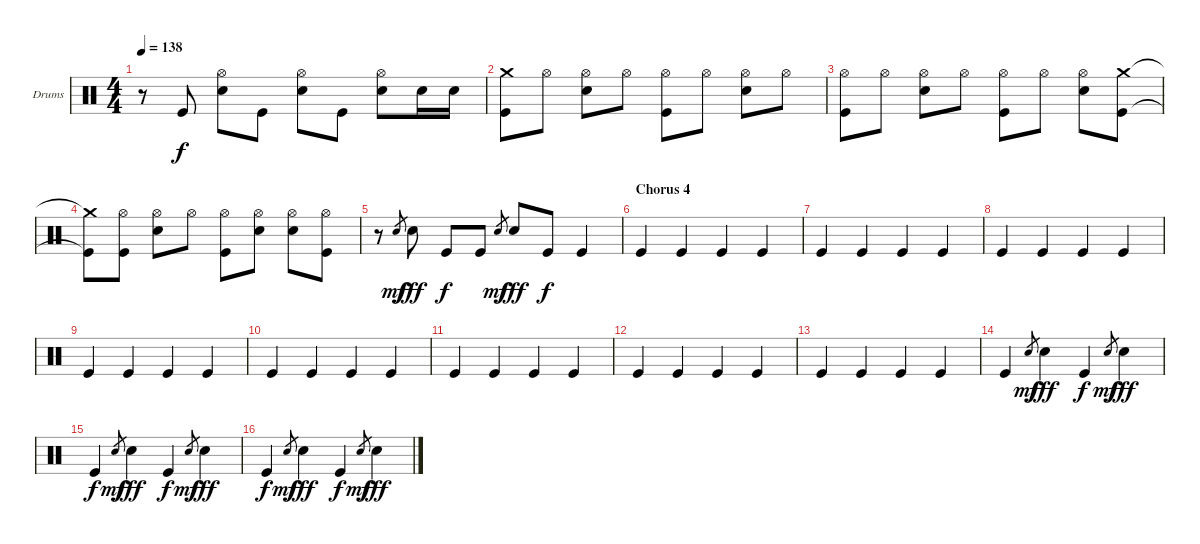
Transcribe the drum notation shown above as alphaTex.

\bracketExtendMode groupsimilarinstruments
\firstSystemTrackNameOrientation horizontal
\otherSystemsTrackNameOrientation horizontal
\track ("Drumkit" "Drums") {instrument percussion}
\staff {score}
\articulation defaults
\ts (4 4)
\tempo 138
\clef neutral
\ks c
r.8{dy f} "Kick (hit)".8 ("Hi-Hat (open)" "Snare (hit) 2").8 "Kick (hit)".8 ("Hi-Hat (open)" "Snare (hit) 2").8 "Kick (hit)".8 ("Hi-Hat (open)" "Snare (hit) 2").8 "Snare (hit) 2".16 "Snare (hit) 2".16 |
("Crash medium (hit)" "Kick (hit)").8 "Hi-Hat (open)".8 ("Hi-Hat (open)" "Snare (hit) 2").8 "Hi-Hat (open)".8 ("Hi-Hat (open)" "Kick (hit)").8 "Hi-Hat (open)".8 ("Hi-Hat (open)" "Snare (hit) 2").8 "Hi-Hat (open)".8 |
("Hi-Hat (open)" "Kick (hit)").8 "Hi-Hat (open)".8 ("Hi-Hat (open)" "Snare (hit) 2").8 "Hi-Hat (open)".8 ("Hi-Hat (open)" "Kick (hit)").8 "Hi-Hat (open)".8 ("Hi-Hat (open)" "Snare (hit) 2").8 ("Crash medium (hit)" "Kick (hit)").8 |
("Crash medium (hit)"{t} "Kick (hit)"{t}).8 ("Hi-Hat (open)" "Kick (hit)").8 ("Hi-Hat (open)" "Snare (hit) 2").8 "Hi-Hat (open)".8 ("Hi-Hat (open)" "Kick (hit)").8 ("Hi-Hat (open)" "Snare (hit) 2").8 ("Hi-Hat (open)" "Snare (hit) 2").8 ("Hi-Hat (open)" "Kick (hit)").8 |
r.8 "Snare (hit) 2".8{gr dy mf} "Snare (hit) 2".8{dy fff} "Kick (hit)".8{dy f} "Kick (hit)".8 "Snare (hit) 2".8{gr dy mf} "Snare (hit) 2".8{dy fff} "Kick (hit)".8{dy f} "Kick (hit)".4 |
\section ("" "Chorus 4")
"Kick (hit)".4 "Kick (hit)".4 "Kick (hit)".4 "Kick (hit)".4 |
"Kick (hit)".4 "Kick (hit)".4 "Kick (hit)".4 "Kick (hit)".4 |
"Kick (hit)".4 "Kick (hit)".4 "Kick (hit)".4 "Kick (hit)".4 |
"Kick (hit)".4 "Kick (hit)".4 "Kick (hit)".4 "Kick (hit)".4 |
"Kick (hit)".4 "Kick (hit)".4 "Kick (hit)".4 "Kick (hit)".4 |
"Kick (hit)".4 "Kick (hit)".4 "Kick (hit)".4 "Kick (hit)".4 |
"Kick (hit)".4 "Kick (hit)".4 "Kick (hit)".4 "Kick (hit)".4 |
"Kick (hit)".4 "Kick (hit)".4 "Kick (hit)".4 "Kick (hit)".4 |
"Kick (hit)".4 "Snare (hit) 2".8{gr dy mf} "Snare (hit) 2".4{dy fff} "Kick (hit)".4{dy f} "Snare (hit) 2".8{gr dy mf} "Snare (hit) 2".4{dy fff} |
"Kick (hit)".4{dy f} "Snare (hit) 2".8{gr dy mf} "Snare (hit) 2".4{dy fff} "Kick (hit)".4{dy f} "Snare (hit) 2".8{gr dy mf} "Snare (hit) 2".4{dy fff} |
"Kick (hit)".4{dy f} "Snare (hit) 2".8{gr dy mf} "Snare (hit) 2".4{dy fff} "Kick (hit)".4{dy f} "Snare (hit) 2".8{gr dy mf} "Snare (hit) 2".4{dy fff}
